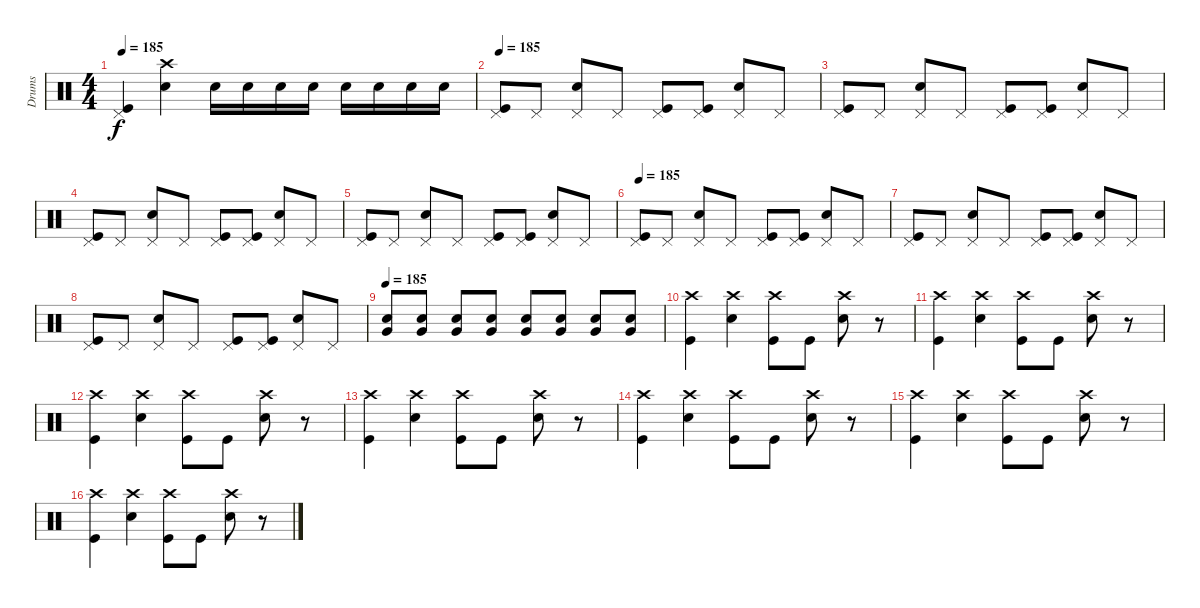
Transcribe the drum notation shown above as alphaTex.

\track ("Drums" "Drums") {instrument percussion}
\staff {score}
\articulation defaults
\ts (4 4)
\tempo 185
\clef neutral
\ks c
("Pedal Hi-Hat (hit)" "Kick (hit)").4{dy f} ("Crash high (hit)" "Electric Snare (hit)").4 "Electric Snare (hit)".16 "Electric Snare (hit)".16 "Electric Snare (hit)".16 "Electric Snare (hit)".16 "Electric Snare (hit)".16 "Electric Snare (hit)".16 "Electric Snare (hit)".16 "Electric Snare (hit)".16 |
\tempo 185
("Pedal Hi-Hat (hit)" "Kick (hit)").8 "Pedal Hi-Hat (hit)".8 ("Pedal Hi-Hat (hit)" "Electric Snare (hit)").8 "Pedal Hi-Hat (hit)".8 ("Pedal Hi-Hat (hit)" "Kick (hit)").8 ("Pedal Hi-Hat (hit)" "Kick (hit)").8 ("Pedal Hi-Hat (hit)" "Electric Snare (hit)").8 "Pedal Hi-Hat (hit)".8 |
("Pedal Hi-Hat (hit)" "Kick (hit)").8 "Pedal Hi-Hat (hit)".8 ("Pedal Hi-Hat (hit)" "Electric Snare (hit)").8 "Pedal Hi-Hat (hit)".8 ("Pedal Hi-Hat (hit)" "Kick (hit)").8 ("Pedal Hi-Hat (hit)" "Kick (hit)").8 ("Pedal Hi-Hat (hit)" "Electric Snare (hit)").8 "Pedal Hi-Hat (hit)".8 |
("Pedal Hi-Hat (hit)" "Kick (hit)").8 "Pedal Hi-Hat (hit)".8 ("Pedal Hi-Hat (hit)" "Electric Snare (hit)").8 "Pedal Hi-Hat (hit)".8 ("Pedal Hi-Hat (hit)" "Kick (hit)").8 ("Pedal Hi-Hat (hit)" "Kick (hit)").8 ("Pedal Hi-Hat (hit)" "Electric Snare (hit)").8 "Pedal Hi-Hat (hit)".8 |
("Pedal Hi-Hat (hit)" "Kick (hit)").8 "Pedal Hi-Hat (hit)".8 ("Pedal Hi-Hat (hit)" "Electric Snare (hit)").8 "Pedal Hi-Hat (hit)".8 ("Pedal Hi-Hat (hit)" "Kick (hit)").8 ("Pedal Hi-Hat (hit)" "Kick (hit)").8 ("Pedal Hi-Hat (hit)" "Electric Snare (hit)").8 "Pedal Hi-Hat (hit)".8 |
\tempo 185
("Pedal Hi-Hat (hit)" "Kick (hit)").8 "Pedal Hi-Hat (hit)".8 ("Pedal Hi-Hat (hit)" "Electric Snare (hit)").8 "Pedal Hi-Hat (hit)".8 ("Pedal Hi-Hat (hit)" "Kick (hit)").8 ("Pedal Hi-Hat (hit)" "Kick (hit)").8 ("Pedal Hi-Hat (hit)" "Electric Snare (hit)").8 "Pedal Hi-Hat (hit)".8 |
("Pedal Hi-Hat (hit)" "Kick (hit)").8 "Pedal Hi-Hat (hit)".8 ("Pedal Hi-Hat (hit)" "Electric Snare (hit)").8 "Pedal Hi-Hat (hit)".8 ("Pedal Hi-Hat (hit)" "Kick (hit)").8 ("Pedal Hi-Hat (hit)" "Kick (hit)").8 ("Pedal Hi-Hat (hit)" "Electric Snare (hit)").8 "Pedal Hi-Hat (hit)".8 |
("Pedal Hi-Hat (hit)" "Kick (hit)").8 "Pedal Hi-Hat (hit)".8 ("Pedal Hi-Hat (hit)" "Electric Snare (hit)").8 "Pedal Hi-Hat (hit)".8 ("Pedal Hi-Hat (hit)" "Kick (hit)").8 ("Pedal Hi-Hat (hit)" "Kick (hit)").8 ("Pedal Hi-Hat (hit)" "Electric Snare (hit)").8 "Pedal Hi-Hat (hit)".8 |
\tempo 185
("Very Low Tom (hit)" "Electric Snare (hit)").8 ("Very Low Tom (hit)" "Electric Snare (hit)").8 ("Very Low Tom (hit)" "Electric Snare (hit)").8 ("Very Low Tom (hit)" "Electric Snare (hit)").8 ("Very Low Tom (hit)" "Electric Snare (hit)").8 ("Very Low Tom (hit)" "Electric Snare (hit)").8 ("Very Low Tom (hit)" "Electric Snare (hit)").8 ("Very Low Tom (hit)" "Electric Snare (hit)").8 |
("Crash high (hit)" "Kick (hit)").4 ("Crash high (hit)" "Electric Snare (hit)").4 ("Crash high (hit)" "Kick (hit)").8 "Kick (hit)".8 ("Crash high (hit)" "Electric Snare (hit)").8 r.8 |
("Crash high (hit)" "Kick (hit)").4 ("Crash high (hit)" "Electric Snare (hit)").4 ("Crash high (hit)" "Kick (hit)").8 "Kick (hit)".8 ("Crash high (hit)" "Electric Snare (hit)").8 r.8 |
("Crash high (hit)" "Kick (hit)").4 ("Crash high (hit)" "Electric Snare (hit)").4 ("Crash high (hit)" "Kick (hit)").8 "Kick (hit)".8 ("Crash high (hit)" "Electric Snare (hit)").8 r.8 |
("Crash high (hit)" "Kick (hit)").4 ("Crash high (hit)" "Electric Snare (hit)").4 ("Crash high (hit)" "Kick (hit)").8 "Kick (hit)".8 ("Crash high (hit)" "Electric Snare (hit)").8 r.8 |
("Crash high (hit)" "Kick (hit)").4 ("Crash high (hit)" "Electric Snare (hit)").4 ("Crash high (hit)" "Kick (hit)").8 "Kick (hit)".8 ("Crash high (hit)" "Electric Snare (hit)").8 r.8 |
("Crash high (hit)" "Kick (hit)").4 ("Crash high (hit)" "Electric Snare (hit)").4 ("Crash high (hit)" "Kick (hit)").8 "Kick (hit)".8 ("Crash high (hit)" "Electric Snare (hit)").8 r.8 |
("Crash high (hit)" "Kick (hit)").4 ("Crash high (hit)" "Electric Snare (hit)").4 ("Crash high (hit)" "Kick (hit)").8 "Kick (hit)".8 ("Crash high (hit)" "Electric Snare (hit)").8 r.8
